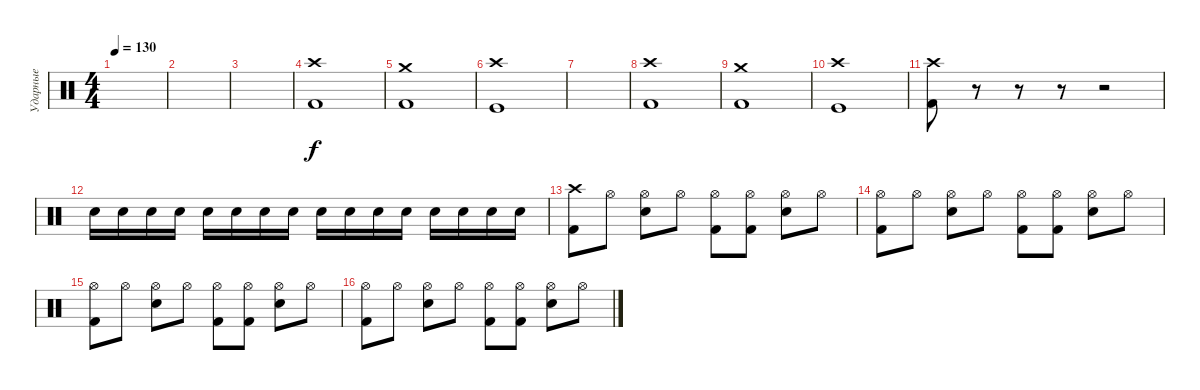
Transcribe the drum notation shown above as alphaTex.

\track ("Ударные" "Ударные") {instrument percussion}
\staff {score}
\articulation defaults
\ts (4 4)
\tempo 130
\clef neutral
\ks c
|
|
|
("Crash high (hit)" "Kick (hit) 2").1 |
("Kick (hit) 2" "Crash medium (hit)").1 |
("Crash high (hit)" "Kick (hit)").1 |
|
("Crash high (hit)" "Kick (hit) 2").1 |
("Kick (hit) 2" "Crash medium (hit)").1 |
("Crash high (hit)" "Kick (hit)").1 |
("Crash high (hit)" "Kick (hit) 2").8 r.8 r.8 r.8 r.2 |
"Electric Snare (hit)".16 "Electric Snare (hit)".16 "Electric Snare (hit)".16 "Electric Snare (hit)".16 "Electric Snare (hit)".16 "Electric Snare (hit)".16 "Electric Snare (hit)".16 "Electric Snare (hit)".16 "Electric Snare (hit)".16 "Electric Snare (hit)".16 "Electric Snare (hit)".16 "Electric Snare (hit)".16 "Electric Snare (hit)".16 "Electric Snare (hit)".16 "Electric Snare (hit)".16 "Electric Snare (hit)".16 |
("Crash high (hit)" "Kick (hit) 2").8 "Hi-Hat (open)".8 ("Electric Snare (hit)" "Hi-Hat (open)").8 "Hi-Hat (open)".8 ("Hi-Hat (open)" "Kick (hit) 2").8 ("Hi-Hat (open)" "Kick (hit) 2").8 ("Hi-Hat (open)" "Electric Snare (hit)").8 "Hi-Hat (open)".8 |
("Hi-Hat (open)" "Kick (hit) 2").8 "Hi-Hat (open)".8 ("Electric Snare (hit)" "Hi-Hat (open)").8 "Hi-Hat (open)".8 ("Hi-Hat (open)" "Kick (hit) 2").8 ("Hi-Hat (open)" "Kick (hit) 2").8 ("Hi-Hat (open)" "Electric Snare (hit)").8 "Hi-Hat (open)".8 |
("Hi-Hat (open)" "Kick (hit) 2").8 "Hi-Hat (open)".8 ("Electric Snare (hit)" "Hi-Hat (open)").8 "Hi-Hat (open)".8 ("Hi-Hat (open)" "Kick (hit) 2").8 ("Hi-Hat (open)" "Kick (hit) 2").8 ("Hi-Hat (open)" "Electric Snare (hit)").8 "Hi-Hat (open)".8 |
("Hi-Hat (open)" "Kick (hit) 2").8 "Hi-Hat (open)".8 ("Electric Snare (hit)" "Hi-Hat (open)").8 "Hi-Hat (open)".8 ("Hi-Hat (open)" "Kick (hit) 2").8 ("Hi-Hat (open)" "Kick (hit) 2").8 ("Hi-Hat (open)" "Electric Snare (hit)").8 "Hi-Hat (open)".8
